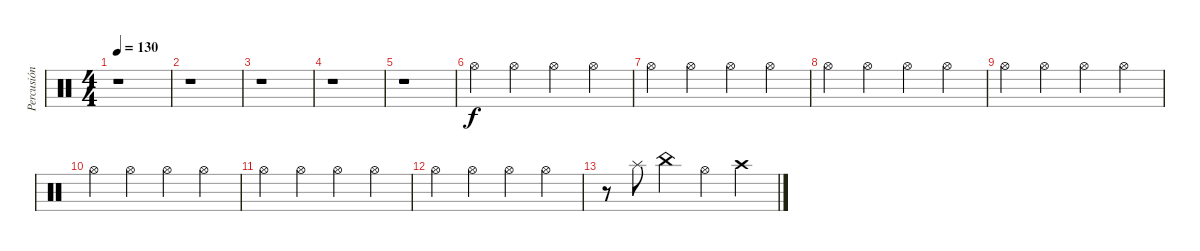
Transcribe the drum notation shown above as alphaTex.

\track ("Percusión" "Percusión") {instrument percussion}
\staff {score}
\articulation defaults
\ts (4 4)
\tempo 130
\clef neutral
\ks c
r.1{dy f} |
r.1 |
r.1 |
r.1 |
r.1 |
"Hi-Hat (open)".4 "Hi-Hat (open)".4 "Hi-Hat (open)".4 "Hi-Hat (open)".4 |
"Hi-Hat (open)".4 "Hi-Hat (open)".4 "Hi-Hat (open)".4 "Hi-Hat (open)".4 |
"Hi-Hat (open)".4 "Hi-Hat (open)".4 "Hi-Hat (open)".4 "Hi-Hat (open)".4 |
"Hi-Hat (open)".4 "Hi-Hat (open)".4 "Hi-Hat (open)".4 "Hi-Hat (open)".4 |
"Hi-Hat (open)".4 "Hi-Hat (open)".4 "Hi-Hat (open)".4 "Hi-Hat (open)".4 |
"Hi-Hat (open)".4 "Hi-Hat (open)".4 "Hi-Hat (open)".4 "Hi-Hat (open)".4 |
"Hi-Hat (open)".4 "Hi-Hat (open)".4 "Hi-Hat (open)".4 "Hi-Hat (open)".4 |
r.8 "Splash (hit)".8 "China (hit)".4 "Hi-Hat (open)".4 "Crash high (hit)".4
